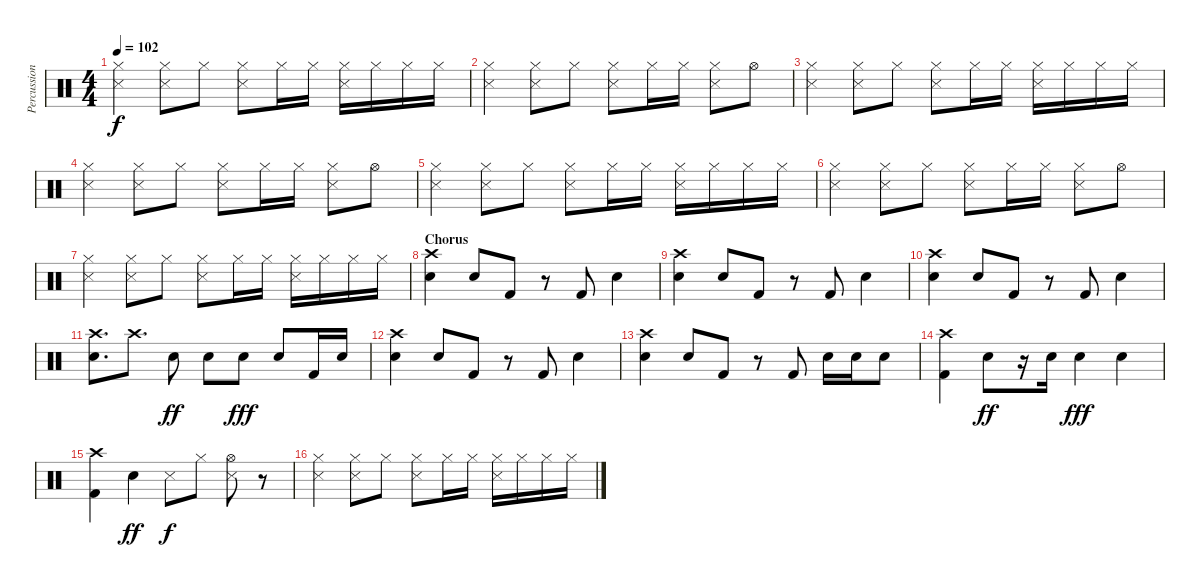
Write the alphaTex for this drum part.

\track ("Percussion" "Percussion") {instrument percussion}
\staff {score}
\articulation defaults
\ts (4 4)
\tempo 102
\clef neutral
\ks c
("Snare (side stick) 3" "Hi-Hat (closed)").4{dy f} ("Snare (side stick) 3" "Hi-Hat (closed)").8 "Hi-Hat (closed)".8 ("Snare (side stick) 3" "Hi-Hat (closed)").8 "Hi-Hat (closed)".16 "Hi-Hat (closed)".16 ("Snare (side stick) 3" "Hi-Hat (closed)").16 "Hi-Hat (closed)".16 "Hi-Hat (closed)".16 "Hi-Hat (closed)".16 |
("Snare (side stick) 3" "Hi-Hat (closed)").4 ("Snare (side stick) 3" "Hi-Hat (closed)").8 "Hi-Hat (closed)".8 ("Snare (side stick) 3" "Hi-Hat (closed)").8 "Hi-Hat (closed)".16 "Hi-Hat (closed)".16 ("Snare (side stick) 3" "Hi-Hat (closed)").8 "Hi-Hat (open)".8 |
("Snare (side stick) 3" "Hi-Hat (closed)").4 ("Snare (side stick) 3" "Hi-Hat (closed)").8 "Hi-Hat (closed)".8 ("Snare (side stick) 3" "Hi-Hat (closed)").8 "Hi-Hat (closed)".16 "Hi-Hat (closed)".16 ("Snare (side stick) 3" "Hi-Hat (closed)").16 "Hi-Hat (closed)".16 "Hi-Hat (closed)".16 "Hi-Hat (closed)".16 |
("Snare (side stick) 3" "Hi-Hat (closed)").4 ("Snare (side stick) 3" "Hi-Hat (closed)").8 "Hi-Hat (closed)".8 ("Snare (side stick) 3" "Hi-Hat (closed)").8 "Hi-Hat (closed)".16 "Hi-Hat (closed)".16 ("Snare (side stick) 3" "Hi-Hat (closed)").8 "Hi-Hat (open)".8 |
("Snare (side stick) 3" "Hi-Hat (closed)").4 ("Snare (side stick) 3" "Hi-Hat (closed)").8 "Hi-Hat (closed)".8 ("Snare (side stick) 3" "Hi-Hat (closed)").8 "Hi-Hat (closed)".16 "Hi-Hat (closed)".16 ("Snare (side stick) 3" "Hi-Hat (closed)").16 "Hi-Hat (closed)".16 "Hi-Hat (closed)".16 "Hi-Hat (closed)".16 |
("Snare (side stick) 3" "Hi-Hat (closed)").4 ("Snare (side stick) 3" "Hi-Hat (closed)").8 "Hi-Hat (closed)".8 ("Snare (side stick) 3" "Hi-Hat (closed)").8 "Hi-Hat (closed)".16 "Hi-Hat (closed)".16 ("Snare (side stick) 3" "Hi-Hat (closed)").8 "Hi-Hat (open)".8 |
("Snare (side stick) 3" "Hi-Hat (closed)").4 ("Snare (side stick) 3" "Hi-Hat (closed)").8 "Hi-Hat (closed)".8 ("Snare (side stick) 3" "Hi-Hat (closed)").8 "Hi-Hat (closed)".16 "Hi-Hat (closed)".16 ("Snare (side stick) 3" "Hi-Hat (closed)").16 "Hi-Hat (closed)".16 "Hi-Hat (closed)".16 "Hi-Hat (closed)".16 |
\section ("" "Chorus")
("Crash high (hit)" "Snare (hit) 2").4 "Snare (hit) 2".8 "Kick (hit) 2".8 r.8 "Kick (hit) 2".8 "Snare (hit) 2".4 |
("Crash high (hit)" "Snare (hit) 2").4 "Snare (hit) 2".8 "Kick (hit) 2".8 r.8 "Kick (hit) 2".8 "Snare (hit) 2".4 |
("Crash high (hit)" "Snare (hit) 2").4 "Snare (hit) 2".8 "Kick (hit) 2".8 r.8 "Kick (hit) 2".8 "Snare (hit) 2".4 |
("Crash high (hit)" "Snare (hit) 2").8{d} "Crash high (hit)".8{d} "Snare (hit) 2".8{dy ff} "Snare (hit) 2".8 "Snare (hit) 2".8{dy fff} "Snare (hit) 2".8 "Kick (hit) 2".16 "Snare (hit) 2".16 |
("Crash high (hit)" "Snare (hit) 2").4 "Snare (hit) 2".8 "Kick (hit) 2".8 r.8 "Kick (hit) 2".8 "Snare (hit) 2".4 |
("Crash high (hit)" "Snare (hit) 2").4 "Snare (hit) 2".8 "Kick (hit) 2".8 r.8 "Kick (hit) 2".8 "Snare (hit) 2".16 "Snare (hit) 2".16 "Snare (hit) 2".8 |
("Crash high (hit)" "Kick (hit) 2").4 "Snare (hit) 2".8{dy ff} r.16 "Snare (hit) 2".16 "Snare (hit) 2".4{dy fff} "Snare (hit) 2".4 |
("Crash high (hit)" "Kick (hit) 2").4 "Snare (hit) 2".4{dy ff} "Snare (side stick) 3".8{dy f} "Hi-Hat (closed)".8 ("Snare (side stick) 3" "Hi-Hat (open)").8 r.8 |
("Snare (side stick) 3" "Hi-Hat (closed)").4 ("Snare (side stick) 3" "Hi-Hat (closed)").8 "Hi-Hat (closed)".8 ("Snare (side stick) 3" "Hi-Hat (closed)").8 "Hi-Hat (closed)".16 "Hi-Hat (closed)".16 ("Snare (side stick) 3" "Hi-Hat (closed)").16 "Hi-Hat (closed)".16 "Hi-Hat (closed)".16 "Hi-Hat (closed)".16
